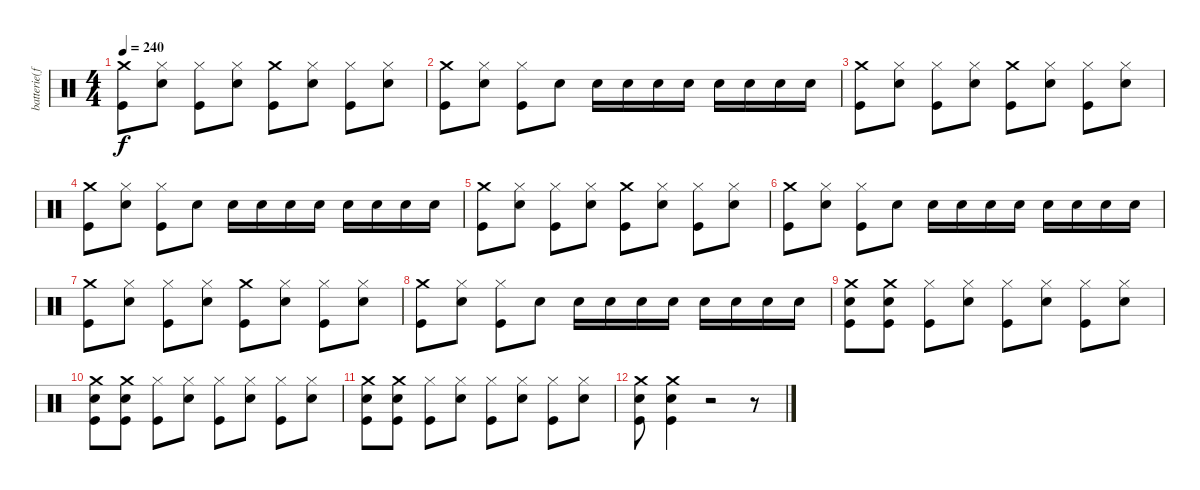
\track ("batterie(felix)" "batterie(f") {instrument percussion}
\staff {score}
\articulation defaults
\ts (4 4)
\tempo 240
\clef neutral
\ks c
("Crash medium (hit)" "Kick (hit)").8{dy f} ("Hi-Hat (closed)" "Snare (hit) 2").8 ("Hi-Hat (closed)" "Kick (hit)").8 ("Hi-Hat (closed)" "Snare (hit) 2").8 ("Crash medium (hit)" "Kick (hit)").8 ("Hi-Hat (closed)" "Snare (hit) 2").8 ("Hi-Hat (closed)" "Kick (hit)").8 ("Hi-Hat (closed)" "Snare (hit) 2").8 |
("Crash medium (hit)" "Kick (hit)").8 ("Hi-Hat (closed)" "Snare (hit) 2").8 ("Hi-Hat (closed)" "Kick (hit)").8 "Snare (hit) 2".8 "Snare (hit) 2".16 "Snare (hit) 2".16 "Snare (hit) 2".16 "Snare (hit) 2".16 "Snare (hit) 2".16 "Snare (hit) 2".16 "Snare (hit) 2".16 "Snare (hit) 2".16 |
("Crash medium (hit)" "Kick (hit)").8 ("Hi-Hat (closed)" "Snare (hit) 2").8 ("Hi-Hat (closed)" "Kick (hit)").8 ("Hi-Hat (closed)" "Snare (hit) 2").8 ("Crash medium (hit)" "Kick (hit)").8 ("Hi-Hat (closed)" "Snare (hit) 2").8 ("Hi-Hat (closed)" "Kick (hit)").8 ("Hi-Hat (closed)" "Snare (hit) 2").8 |
("Crash medium (hit)" "Kick (hit)").8 ("Hi-Hat (closed)" "Snare (hit) 2").8 ("Hi-Hat (closed)" "Kick (hit)").8 "Snare (hit) 2".8 "Snare (hit) 2".16 "Snare (hit) 2".16 "Snare (hit) 2".16 "Snare (hit) 2".16 "Snare (hit) 2".16 "Snare (hit) 2".16 "Snare (hit) 2".16 "Snare (hit) 2".16 |
("Crash medium (hit)" "Kick (hit)").8 ("Hi-Hat (closed)" "Snare (hit) 2").8 ("Hi-Hat (closed)" "Kick (hit)").8 ("Hi-Hat (closed)" "Snare (hit) 2").8 ("Crash medium (hit)" "Kick (hit)").8 ("Hi-Hat (closed)" "Snare (hit) 2").8 ("Hi-Hat (closed)" "Kick (hit)").8 ("Hi-Hat (closed)" "Snare (hit) 2").8 |
("Crash medium (hit)" "Kick (hit)").8 ("Hi-Hat (closed)" "Snare (hit) 2").8 ("Hi-Hat (closed)" "Kick (hit)").8 "Snare (hit) 2".8 "Snare (hit) 2".16 "Snare (hit) 2".16 "Snare (hit) 2".16 "Snare (hit) 2".16 "Snare (hit) 2".16 "Snare (hit) 2".16 "Snare (hit) 2".16 "Snare (hit) 2".16 |
("Crash medium (hit)" "Kick (hit)").8 ("Hi-Hat (closed)" "Snare (hit) 2").8 ("Hi-Hat (closed)" "Kick (hit)").8 ("Hi-Hat (closed)" "Snare (hit) 2").8 ("Crash medium (hit)" "Kick (hit)").8 ("Hi-Hat (closed)" "Snare (hit) 2").8 ("Hi-Hat (closed)" "Kick (hit)").8 ("Hi-Hat (closed)" "Snare (hit) 2").8 |
("Crash medium (hit)" "Kick (hit)").8 ("Hi-Hat (closed)" "Snare (hit) 2").8 ("Hi-Hat (closed)" "Kick (hit)").8 "Snare (hit) 2".8 "Snare (hit) 2".16 "Snare (hit) 2".16 "Snare (hit) 2".16 "Snare (hit) 2".16 "Snare (hit) 2".16 "Snare (hit) 2".16 "Snare (hit) 2".16 "Snare (hit) 2".16 |
("Crash medium (hit)" "Snare (hit) 2" "Kick (hit)").8 ("Crash medium (hit)" "Snare (hit) 2" "Kick (hit)").8 ("Hi-Hat (closed)" "Kick (hit)").8 ("Hi-Hat (closed)" "Snare (hit) 2").8 ("Hi-Hat (closed)" "Kick (hit)").8 ("Hi-Hat (closed)" "Snare (hit) 2").8 ("Hi-Hat (closed)" "Kick (hit)").8 ("Hi-Hat (closed)" "Snare (hit) 2").8 |
("Crash medium (hit)" "Snare (hit) 2" "Kick (hit)").8 ("Crash medium (hit)" "Snare (hit) 2" "Kick (hit)").8 ("Hi-Hat (closed)" "Kick (hit)").8 ("Hi-Hat (closed)" "Snare (hit) 2").8 ("Hi-Hat (closed)" "Kick (hit)").8 ("Hi-Hat (closed)" "Snare (hit) 2").8 ("Hi-Hat (closed)" "Kick (hit)").8 ("Hi-Hat (closed)" "Snare (hit) 2").8 |
("Crash medium (hit)" "Snare (hit) 2" "Kick (hit)").8 ("Crash medium (hit)" "Snare (hit) 2" "Kick (hit)").8 ("Hi-Hat (closed)" "Kick (hit)").8 ("Hi-Hat (closed)" "Snare (hit) 2").8 ("Hi-Hat (closed)" "Kick (hit)").8 ("Hi-Hat (closed)" "Snare (hit) 2").8 ("Hi-Hat (closed)" "Kick (hit)").8 ("Hi-Hat (closed)" "Snare (hit) 2").8 |
("Crash medium (hit)" "Snare (hit) 2" "Kick (hit)").8 ("Crash medium (hit)" "Snare (hit) 2" "Kick (hit)").4 r.2 r.8
